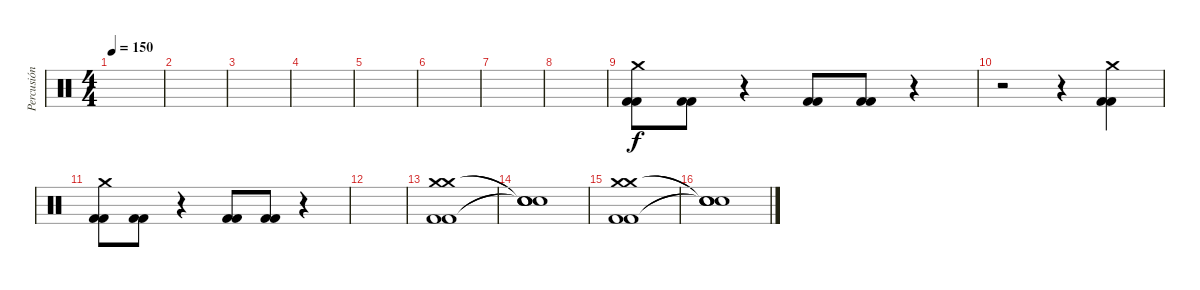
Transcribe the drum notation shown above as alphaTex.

\track ("Percusión" "Percusión") {instrument percussion}
\staff {score}
\articulation defaults
\ts (4 4)
\tempo 150
\clef neutral
\ks c
|
|
|
|
|
|
|
|
("Crash medium (hit)" "Kick (hit) 2" "Kick (hit) 2").8 ("Kick (hit) 2" "Kick (hit) 2").8 r.4 ("Kick (hit) 2" "Kick (hit) 2").8 ("Kick (hit) 2" "Kick (hit) 2").8 r.4 |
r.2 r.4 ("Crash medium (hit)" "Kick (hit) 2" "Kick (hit) 2").4 |
("Crash medium (hit)" "Kick (hit) 2" "Kick (hit) 2").8 ("Kick (hit) 2" "Kick (hit) 2").8 r.4 ("Kick (hit) 2" "Kick (hit) 2").8 ("Kick (hit) 2" "Kick (hit) 2").8 r.4 |
|
("Crash medium (hit)" "Crash medium (hit)" "Kick (hit) 2" "Kick (hit) 2").1 |
("Snare (hit)"{t} "Snare (hit)"{t} "Snare (hit)"{t} "Snare (hit)"{t}).1 |
("Crash medium (hit)" "Crash medium (hit)" "Kick (hit) 2" "Kick (hit) 2").1 |
("Snare (hit)"{t} "Snare (hit)"{t} "Snare (hit)"{t} "Snare (hit)"{t}).1
